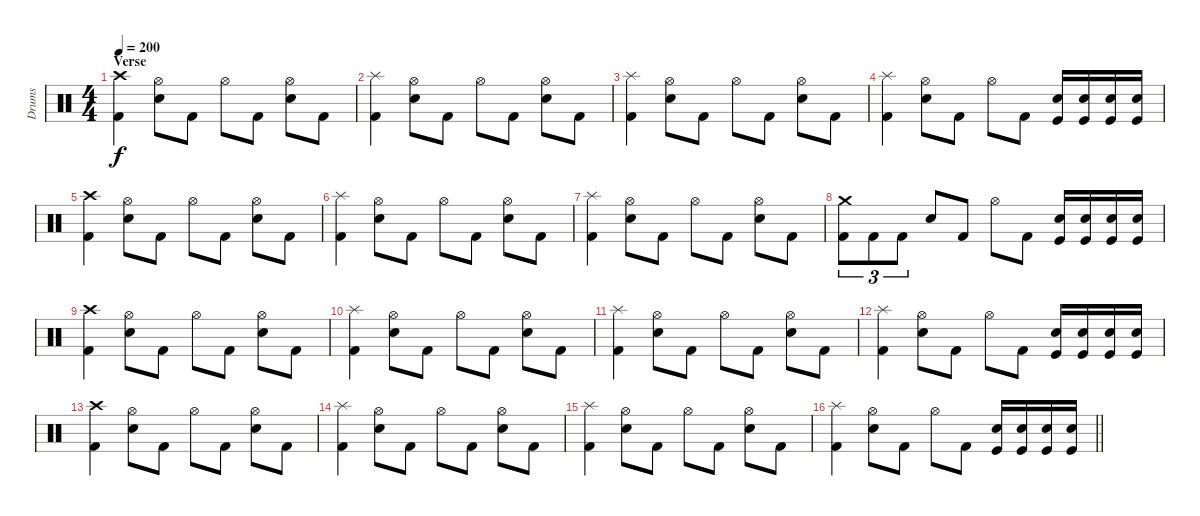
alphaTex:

\track ("Drums" "Drums") {instrument percussion}
\staff {score}
\articulation defaults
\ts (4 4)
\section ("" "Verse")
\tempo 200
\clef neutral
\ks c
("Crash high (hit)" "Kick (hit) 2").4{dy f} ("Hi-Hat (open)" "Snare (hit) 2").8 "Kick (hit) 2".8 "Hi-Hat (open)".8 "Kick (hit) 2".8 ("Hi-Hat (open)" "Snare (hit) 2").8 "Kick (hit) 2".8 |
("Splash (hit)" "Kick (hit) 2").4 ("Hi-Hat (open)" "Snare (hit) 2").8 "Kick (hit) 2".8 "Hi-Hat (open)".8 "Kick (hit) 2".8 ("Hi-Hat (open)" "Snare (hit) 2").8 "Kick (hit) 2".8 |
("Splash (hit)" "Kick (hit) 2").4 ("Hi-Hat (open)" "Snare (hit) 2").8 "Kick (hit) 2".8 "Hi-Hat (open)".8 "Kick (hit) 2".8 ("Hi-Hat (open)" "Snare (hit) 2").8 "Kick (hit) 2".8 |
("Splash (hit)" "Kick (hit) 2").4 ("Hi-Hat (open)" "Snare (hit) 2").8 "Kick (hit) 2".8 "Hi-Hat (open)".8 "Kick (hit) 2".8 ("Snare (hit) 2" "Kick (hit)").16 ("Snare (hit) 2" "Kick (hit)").16 ("Snare (hit) 2" "Kick (hit)").16 ("Snare (hit) 2" "Kick (hit)").16 |
("Crash high (hit)" "Kick (hit) 2").4 ("Hi-Hat (open)" "Snare (hit) 2").8 "Kick (hit) 2".8 "Hi-Hat (open)".8 "Kick (hit) 2".8 ("Hi-Hat (open)" "Snare (hit) 2").8 "Kick (hit) 2".8 |
("Splash (hit)" "Kick (hit) 2").4 ("Hi-Hat (open)" "Snare (hit) 2").8 "Kick (hit) 2".8 "Hi-Hat (open)".8 "Kick (hit) 2".8 ("Hi-Hat (open)" "Snare (hit) 2").8 "Kick (hit) 2".8 |
("Splash (hit)" "Kick (hit) 2").4 ("Hi-Hat (open)" "Snare (hit) 2").8 "Kick (hit) 2".8 "Hi-Hat (open)".8 "Kick (hit) 2".8 ("Hi-Hat (open)" "Snare (hit) 2").8 "Kick (hit) 2".8 |
("Crash medium (hit)" "Kick (hit) 2").8{tu (3 2)} "Kick (hit) 2".8{tu (3 2)} "Kick (hit) 2".8{tu (3 2)} "Snare (hit) 2".8 "Kick (hit) 2".8 "Hi-Hat (open)".8 "Kick (hit) 2".8 ("Snare (hit) 2" "Kick (hit)").16 ("Snare (hit) 2" "Kick (hit)").16 ("Snare (hit) 2" "Kick (hit)").16 ("Snare (hit) 2" "Kick (hit)").16 |
("Crash high (hit)" "Kick (hit) 2").4 ("Hi-Hat (open)" "Snare (hit) 2").8 "Kick (hit) 2".8 "Hi-Hat (open)".8 "Kick (hit) 2".8 ("Hi-Hat (open)" "Snare (hit) 2").8 "Kick (hit) 2".8 |
("Splash (hit)" "Kick (hit) 2").4 ("Hi-Hat (open)" "Snare (hit) 2").8 "Kick (hit) 2".8 "Hi-Hat (open)".8 "Kick (hit) 2".8 ("Hi-Hat (open)" "Snare (hit) 2").8 "Kick (hit) 2".8 |
("Splash (hit)" "Kick (hit) 2").4 ("Hi-Hat (open)" "Snare (hit) 2").8 "Kick (hit) 2".8 "Hi-Hat (open)".8 "Kick (hit) 2".8 ("Hi-Hat (open)" "Snare (hit) 2").8 "Kick (hit) 2".8 |
("Splash (hit)" "Kick (hit) 2").4 ("Hi-Hat (open)" "Snare (hit) 2").8 "Kick (hit) 2".8 "Hi-Hat (open)".8 "Kick (hit) 2".8 ("Snare (hit) 2" "Kick (hit)").16 ("Snare (hit) 2" "Kick (hit)").16 ("Snare (hit) 2" "Kick (hit)").16 ("Snare (hit) 2" "Kick (hit)").16 |
("Crash high (hit)" "Kick (hit) 2").4 ("Hi-Hat (open)" "Snare (hit) 2").8 "Kick (hit) 2".8 "Hi-Hat (open)".8 "Kick (hit) 2".8 ("Hi-Hat (open)" "Snare (hit) 2").8 "Kick (hit) 2".8 |
("Splash (hit)" "Kick (hit) 2").4 ("Hi-Hat (open)" "Snare (hit) 2").8 "Kick (hit) 2".8 "Hi-Hat (open)".8 "Kick (hit) 2".8 ("Hi-Hat (open)" "Snare (hit) 2").8 "Kick (hit) 2".8 |
("Splash (hit)" "Kick (hit) 2").4 ("Hi-Hat (open)" "Snare (hit) 2").8 "Kick (hit) 2".8 "Hi-Hat (open)".8 "Kick (hit) 2".8 ("Hi-Hat (open)" "Snare (hit) 2").8 "Kick (hit) 2".8 |
\barLineRight lightlight
("Splash (hit)" "Kick (hit) 2").4 ("Hi-Hat (open)" "Snare (hit) 2").8 "Kick (hit) 2".8 "Hi-Hat (open)".8 "Kick (hit) 2".8 ("Snare (hit) 2" "Kick (hit)").16 ("Snare (hit) 2" "Kick (hit)").16 ("Snare (hit) 2" "Kick (hit)").16 ("Snare (hit) 2" "Kick (hit)").16
